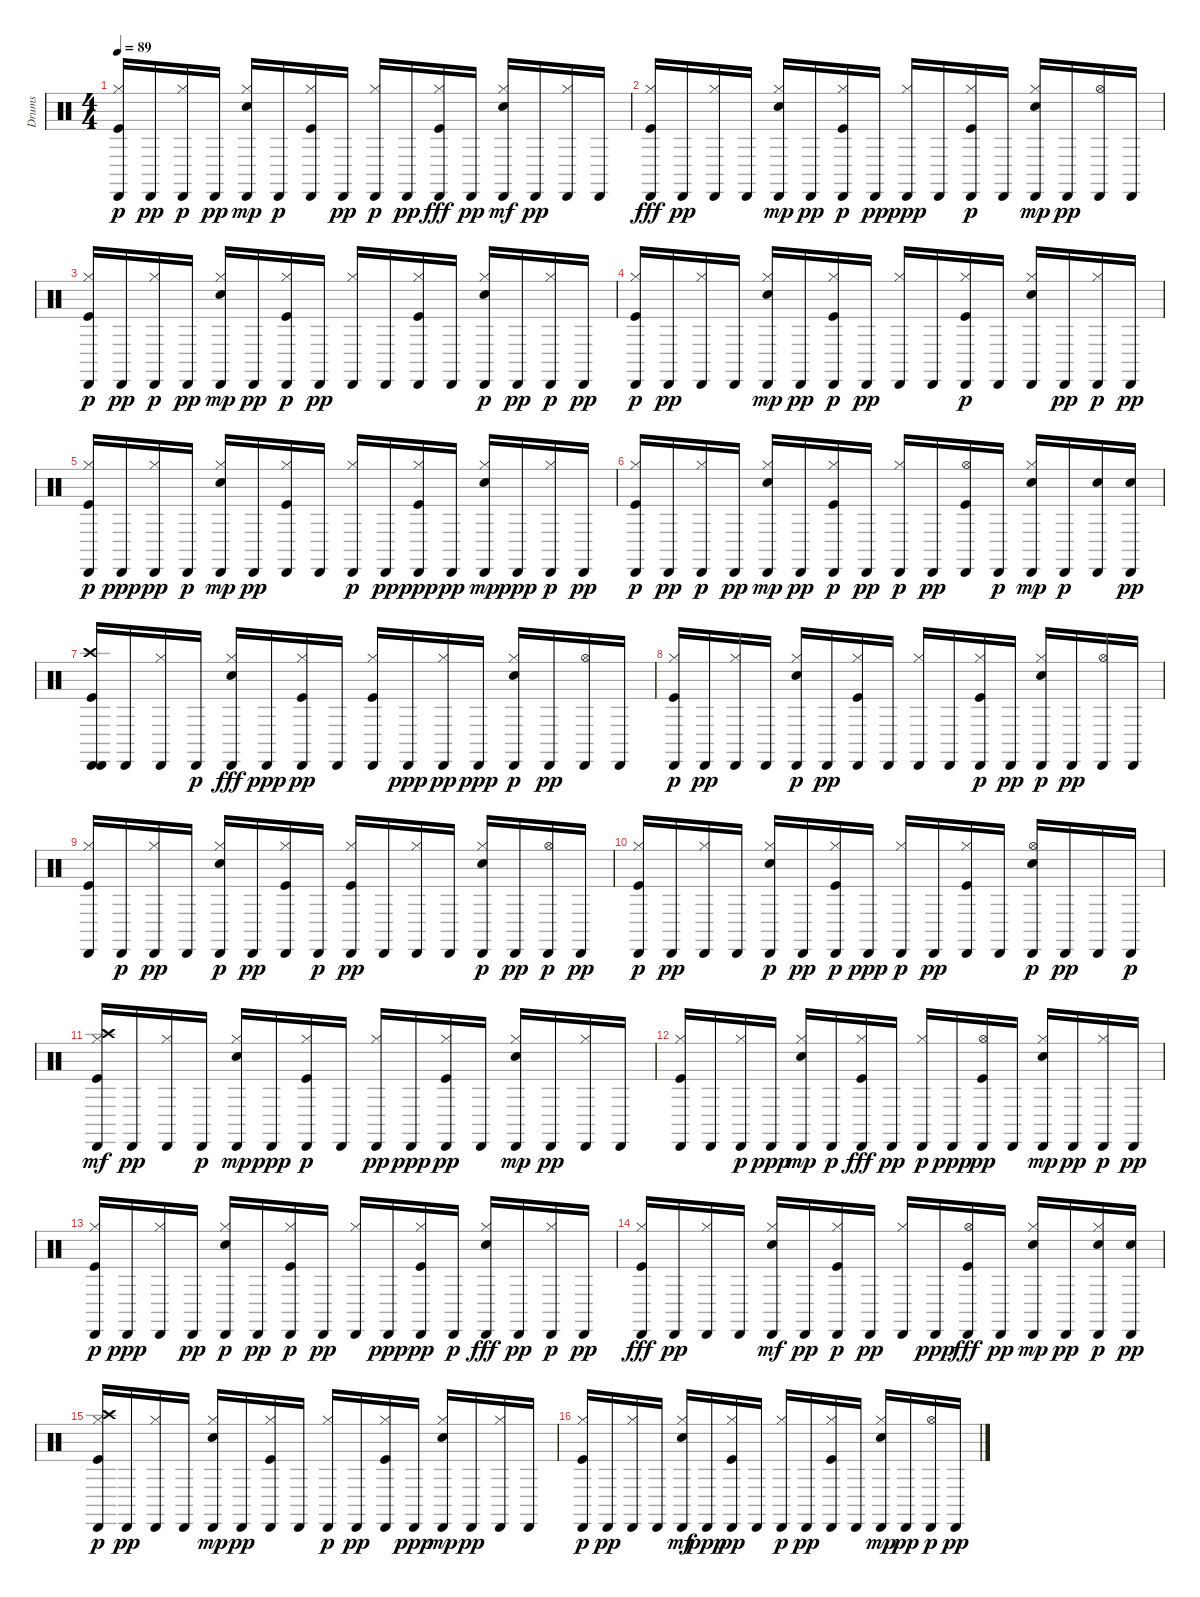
\track ("Drums" "Drums") {instrument percussion}
\staff {score}
\articulation defaults
\ts (4 4)
\tempo 89
\clef neutral
\ks c
("Hi-Hat (closed)" "Kick (hit)" "Cabasa (hit)").16{dy p} "Cabasa (hit)".16{dy pp} ("Hi-Hat (closed)" "Cabasa (hit)").16{dy p} "Cabasa (hit)".16{dy pp} ("Electric Snare (hit)" "Hi-Hat (closed)" "Cabasa (hit)").16{dy mp} "Cabasa (hit)".16{dy p} ("Hi-Hat (closed)" "Kick (hit)" "Cabasa (hit)").16 "Cabasa (hit)".16{dy pp} ("Cabasa (hit)" "Hi-Hat (closed)").16{dy p} "Cabasa (hit)".16{dy pp} ("Cabasa (hit)" "Hi-Hat (closed)" "Kick (hit)").16{dy fff} "Cabasa (hit)".16{dy pp} ("Cabasa (hit)" "Electric Snare (hit)" "Hi-Hat (closed)").16{dy mf} "Cabasa (hit)".16{dy pp} ("Hi-Hat (closed)" "Cabasa (hit)").16 "Cabasa (hit)".16 |
("Hi-Hat (closed)" "Cabasa (hit)" "Kick (hit)").16{dy fff} "Cabasa (hit)".16{dy pp} ("Hi-Hat (closed)" "Cabasa (hit)").16 "Cabasa (hit)".16 ("Hi-Hat (closed)" "Electric Snare (hit)" "Cabasa (hit)").16{dy mp} "Cabasa (hit)".16{dy pp} ("Kick (hit)" "Hi-Hat (closed)" "Cabasa (hit)").16{dy p} "Cabasa (hit)".16{dy pp} ("Hi-Hat (closed)" "Cabasa (hit)").16{dy ppp} "Cabasa (hit)".16 ("Hi-Hat (closed)" "Kick (hit)" "Cabasa (hit)").16{dy p} "Cabasa (hit)".16 ("Electric Snare (hit)" "Hi-Hat (closed)" "Cabasa (hit)").16{dy mp} "Cabasa (hit)".16{dy pp} ("Hi-Hat (open)" "Cabasa (hit)").16 "Cabasa (hit)".16 |
("Kick (hit)" "Cabasa (hit)" "Hi-Hat (closed)").16{dy p} "Cabasa (hit)".16{dy pp} ("Hi-Hat (closed)" "Cabasa (hit)").16{dy p} "Cabasa (hit)".16{dy pp} ("Electric Snare (hit)" "Hi-Hat (closed)" "Cabasa (hit)").16{dy mp} "Cabasa (hit)".16{dy pp} ("Hi-Hat (closed)" "Kick (hit)" "Cabasa (hit)").16{dy p} "Cabasa (hit)".16{dy pp} ("Hi-Hat (closed)" "Cabasa (hit)").16 "Cabasa (hit)".16 ("Kick (hit)" "Hi-Hat (closed)" "Cabasa (hit)").16 "Cabasa (hit)".16 ("Hi-Hat (closed)" "Electric Snare (hit)" "Cabasa (hit)").16{dy p} "Cabasa (hit)".16{dy pp} ("Hi-Hat (closed)" "Cabasa (hit)").16{dy p} "Cabasa (hit)".16{dy pp} |
("Kick (hit)" "Hi-Hat (closed)" "Cabasa (hit)").16{dy p} "Cabasa (hit)".16{dy pp} ("Hi-Hat (closed)" "Cabasa (hit)").16 "Cabasa (hit)".16 ("Electric Snare (hit)" "Hi-Hat (closed)" "Cabasa (hit)").16{dy mp} "Cabasa (hit)".16{dy pp} ("Kick (hit)" "Hi-Hat (closed)" "Cabasa (hit)").16{dy p} "Cabasa (hit)".16{dy pp} ("Hi-Hat (closed)" "Cabasa (hit)").16 "Cabasa (hit)".16 ("Kick (hit)" "Hi-Hat (closed)" "Cabasa (hit)").16{dy p} "Cabasa (hit)".16 ("Electric Snare (hit)" "Hi-Hat (closed)" "Cabasa (hit)").16 "Cabasa (hit)".16{dy pp} ("Hi-Hat (closed)" "Cabasa (hit)").16{dy p} "Cabasa (hit)".16{dy pp} |
("Hi-Hat (closed)" "Kick (hit)" "Cabasa (hit)").16{dy p} "Cabasa (hit)".16{dy ppp} ("Hi-Hat (closed)" "Cabasa (hit)").16{dy pp} "Cabasa (hit)".16{dy p} ("Hi-Hat (closed)" "Electric Snare (hit)" "Cabasa (hit)").16{dy mp} "Cabasa (hit)".16{dy pp} ("Hi-Hat (closed)" "Kick (hit)" "Cabasa (hit)").16 "Cabasa (hit)".16 ("Hi-Hat (closed)" "Cabasa (hit)").16{dy p} "Cabasa (hit)".16{dy pp} ("Kick (hit)" "Hi-Hat (closed)" "Cabasa (hit)").16{dy ppp} "Cabasa (hit)".16{dy pp} ("Electric Snare (hit)" "Hi-Hat (closed)" "Cabasa (hit)").16{dy mp} "Cabasa (hit)".16{dy ppp} ("Hi-Hat (closed)" "Cabasa (hit)").16{dy p} "Cabasa (hit)".16{dy pp} |
("Kick (hit)" "Hi-Hat (closed)" "Cabasa (hit)").16{dy p} "Cabasa (hit)".16{dy pp} ("Hi-Hat (closed)" "Cabasa (hit)").16{dy p} "Cabasa (hit)".16{dy pp} ("Electric Snare (hit)" "Hi-Hat (closed)" "Cabasa (hit)").16{dy mp} "Cabasa (hit)".16{dy pp} ("Hi-Hat (closed)" "Kick (hit)" "Cabasa (hit)").16{dy p} "Cabasa (hit)".16{dy pp} ("Hi-Hat (closed)" "Cabasa (hit)").16{dy p} "Cabasa (hit)".16{dy pp} ("Kick (hit)" "Hi-Hat (open)" "Cabasa (hit)").16 "Cabasa (hit)".16{dy p} ("Electric Snare (hit)" "Hi-Hat (closed)" "Cabasa (hit)").16{dy mp} "Cabasa (hit)".16{dy p} ("Electric Snare (hit)" "Cabasa (hit)").16 ("Electric Snare (hit)" "Cabasa (hit)").16{dy pp} |
("Crash high (hit)" "Kick (hit)" "Cabasa (hit)" "Cabasa (hit)").16 "Cabasa (hit)".16 ("Hi-Hat (closed)" "Cabasa (hit)").16 "Cabasa (hit)".16{dy p} ("Hi-Hat (closed)" "Cabasa (hit)" "Electric Snare (hit)").16{dy fff} "Cabasa (hit)".16{dy ppp} ("Hi-Hat (closed)" "Kick (hit)" "Cabasa (hit)").16{dy pp} "Cabasa (hit)".16 ("Kick (hit)" "Hi-Hat (closed)" "Cabasa (hit)").16 "Cabasa (hit)".16{dy ppp} ("Hi-Hat (closed)" "Cabasa (hit)").16{dy pp} "Cabasa (hit)".16{dy ppp} ("Hi-Hat (closed)" "Electric Snare (hit)" "Cabasa (hit)").16{dy p} "Cabasa (hit)".16{dy pp} ("Hi-Hat (open)" "Cabasa (hit)").16 "Cabasa (hit)".16 |
("Kick (hit)" "Hi-Hat (closed)" "Cabasa (hit)").16{dy p} "Cabasa (hit)".16{dy pp} ("Hi-Hat (closed)" "Cabasa (hit)").16 "Cabasa (hit)".16 ("Hi-Hat (closed)" "Electric Snare (hit)" "Cabasa (hit)").16{dy p} "Cabasa (hit)".16{dy pp} ("Kick (hit)" "Hi-Hat (closed)" "Cabasa (hit)").16 "Cabasa (hit)".16 ("Hi-Hat (closed)" "Cabasa (hit)").16 "Cabasa (hit)".16 ("Hi-Hat (closed)" "Kick (hit)" "Cabasa (hit)").16{dy p} "Cabasa (hit)".16{dy pp} ("Hi-Hat (closed)" "Electric Snare (hit)" "Cabasa (hit)").16{dy p} "Cabasa (hit)".16{dy pp} ("Hi-Hat (open)" "Cabasa (hit)").16 "Cabasa (hit)".16 |
("Kick (hit)" "Hi-Hat (closed)" "Cabasa (hit)").16 "Cabasa (hit)".16{dy p} ("Hi-Hat (closed)" "Cabasa (hit)").16{dy pp} "Cabasa (hit)".16 ("Electric Snare (hit)" "Hi-Hat (closed)" "Cabasa (hit)").16{dy p} "Cabasa (hit)".16{dy pp} ("Hi-Hat (closed)" "Kick (hit)" "Cabasa (hit)").16 "Cabasa (hit)".16{dy p} ("Kick (hit)" "Hi-Hat (closed)" "Cabasa (hit)").16{dy pp} "Cabasa (hit)".16 ("Hi-Hat (closed)" "Cabasa (hit)").16 "Cabasa (hit)".16 ("Hi-Hat (closed)" "Electric Snare (hit)" "Cabasa (hit)").16{dy p} "Cabasa (hit)".16{dy pp} ("Hi-Hat (open)" "Cabasa (hit)").16{dy p} "Cabasa (hit)".16{dy pp} |
("Hi-Hat (closed)" "Kick (hit)" "Cabasa (hit)").16{dy p} "Cabasa (hit)".16{dy pp} ("Hi-Hat (closed)" "Cabasa (hit)").16 "Cabasa (hit)".16 ("Hi-Hat (closed)" "Electric Snare (hit)" "Cabasa (hit)").16{dy p} "Cabasa (hit)".16{dy pp} ("Kick (hit)" "Hi-Hat (closed)" "Cabasa (hit)").16{dy p} "Cabasa (hit)".16{dy ppp} ("Hi-Hat (closed)" "Cabasa (hit)").16{dy p} "Cabasa (hit)".16{dy pp} ("Kick (hit)" "Hi-Hat (closed)" "Cabasa (hit)").16 "Cabasa (hit)".16 ("Electric Snare (hit)" "Hi-Hat (open)" "Cabasa (hit)").16{dy p} "Cabasa (hit)".16{dy pp} "Cabasa (hit)".16 "Cabasa (hit)".16{dy p} |
("Hi-Hat (closed)" "Cabasa (hit)" "Kick (hit)" "Crash high (hit)").16{dy mf} "Cabasa (hit)".16{dy pp} ("Hi-Hat (closed)" "Cabasa (hit)").16 "Cabasa (hit)".16{dy p} ("Electric Snare (hit)" "Hi-Hat (closed)" "Cabasa (hit)").16{dy mp} "Cabasa (hit)".16{dy ppp} ("Hi-Hat (closed)" "Kick (hit)" "Cabasa (hit)").16{dy p} "Cabasa (hit)".16 ("Hi-Hat (closed)" "Cabasa (hit)").16{dy pp} "Cabasa (hit)".16{dy ppp} ("Kick (hit)" "Hi-Hat (closed)" "Cabasa (hit)").16{dy pp} "Cabasa (hit)".16 ("Electric Snare (hit)" "Hi-Hat (closed)" "Cabasa (hit)").16{dy mp} "Cabasa (hit)".16{dy pp} ("Hi-Hat (closed)" "Cabasa (hit)").16 "Cabasa (hit)".16 |
("Kick (hit)" "Hi-Hat (closed)" "Cabasa (hit)").16 "Cabasa (hit)".16 ("Hi-Hat (closed)" "Cabasa (hit)").16{dy p} "Cabasa (hit)".16{dy ppp} ("Electric Snare (hit)" "Hi-Hat (closed)" "Cabasa (hit)").16{dy mp} "Cabasa (hit)".16{dy p} ("Hi-Hat (closed)" "Cabasa (hit)" "Kick (hit)").16{dy fff} "Cabasa (hit)".16{dy pp} ("Hi-Hat (closed)" "Cabasa (hit)").16{dy p} "Cabasa (hit)".16{dy ppp} ("Hi-Hat (open)" "Kick (hit)" "Cabasa (hit)").16{dy pp} "Cabasa (hit)".16 ("Hi-Hat (closed)" "Electric Snare (hit)" "Cabasa (hit)").16{dy mp} "Cabasa (hit)".16{dy pp} ("Hi-Hat (closed)" "Cabasa (hit)").16{dy p} "Cabasa (hit)".16{dy pp} |
("Hi-Hat (closed)" "Kick (hit)" "Cabasa (hit)").16{dy p} "Cabasa (hit)".16{dy ppp} ("Hi-Hat (closed)" "Cabasa (hit)").16 "Cabasa (hit)".16{dy pp} ("Electric Snare (hit)" "Hi-Hat (closed)" "Cabasa (hit)").16{dy p} "Cabasa (hit)".16{dy pp} ("Hi-Hat (closed)" "Kick (hit)" "Cabasa (hit)").16{dy p} "Cabasa (hit)".16{dy pp} ("Hi-Hat (closed)" "Cabasa (hit)").16 "Cabasa (hit)".16{dy ppp} ("Hi-Hat (closed)" "Kick (hit)" "Cabasa (hit)").16{dy pp} "Cabasa (hit)".16{dy p} ("Hi-Hat (closed)" "Cabasa (hit)" "Electric Snare (hit)").16{dy fff} "Cabasa (hit)".16{dy pp} ("Hi-Hat (closed)" "Cabasa (hit)").16{dy p} "Cabasa (hit)".16{dy pp} |
("Hi-Hat (closed)" "Cabasa (hit)" "Kick (hit)").16{dy fff} "Cabasa (hit)".16{dy pp} ("Hi-Hat (closed)" "Cabasa (hit)").16 "Cabasa (hit)".16 ("Electric Snare (hit)" "Cabasa (hit)" "Hi-Hat (closed)").16{dy mf} "Cabasa (hit)".16{dy pp} ("Hi-Hat (closed)" "Kick (hit)" "Cabasa (hit)").16{dy p} "Cabasa (hit)".16{dy pp} ("Hi-Hat (closed)" "Cabasa (hit)").16 "Cabasa (hit)".16{dy ppp} ("Hi-Hat (open)" "Cabasa (hit)" "Kick (hit)").16{dy fff} "Cabasa (hit)".16{dy pp} ("Electric Snare (hit)" "Hi-Hat (closed)" "Cabasa (hit)").16{dy mp} "Cabasa (hit)".16{dy pp} ("Hi-Hat (closed)" "Electric Snare (hit)" "Cabasa (hit)").16{dy p} ("Electric Snare (hit)" "Cabasa (hit)").16{dy pp} |
("Hi-Hat (closed)" "Kick (hit)" "Crash high (hit)" "Cabasa (hit)").16{dy p} "Cabasa (hit)".16{dy pp} ("Hi-Hat (closed)" "Cabasa (hit)").16 "Cabasa (hit)".16 ("Hi-Hat (closed)" "Electric Snare (hit)" "Cabasa (hit)").16{dy mp} "Cabasa (hit)".16{dy pp} ("Kick (hit)" "Hi-Hat (closed)" "Cabasa (hit)").16 "Cabasa (hit)".16 ("Hi-Hat (closed)" "Cabasa (hit)").16{dy p} "Cabasa (hit)".16{dy pp} ("Kick (hit)" "Hi-Hat (closed)" "Cabasa (hit)").16 "Cabasa (hit)".16{dy ppp} ("Electric Snare (hit)" "Hi-Hat (closed)" "Cabasa (hit)").16{dy mp} "Cabasa (hit)".16{dy pp} ("Hi-Hat (closed)" "Cabasa (hit)").16 "Cabasa (hit)".16 |
("Kick (hit)" "Hi-Hat (closed)" "Cabasa (hit)").16{dy p} "Cabasa (hit)".16{dy pp} ("Hi-Hat (closed)" "Cabasa (hit)").16 "Cabasa (hit)".16 ("Electric Snare (hit)" "Cabasa (hit)" "Hi-Hat (closed)").16{dy mf} "Cabasa (hit)".16{dy ppp} ("Hi-Hat (closed)" "Kick (hit)" "Cabasa (hit)").16{dy pp} "Cabasa (hit)".16 ("Hi-Hat (closed)" "Cabasa (hit)").16{dy p} "Cabasa (hit)".16{dy pp} ("Hi-Hat (closed)" "Kick (hit)" "Cabasa (hit)").16 "Cabasa (hit)".16 ("Electric Snare (hit)" "Hi-Hat (closed)" "Cabasa (hit)").16{dy mp} "Cabasa (hit)".16{dy pp} ("Hi-Hat (open)" "Cabasa (hit)").16{dy p} "Cabasa (hit)".16{dy pp}
